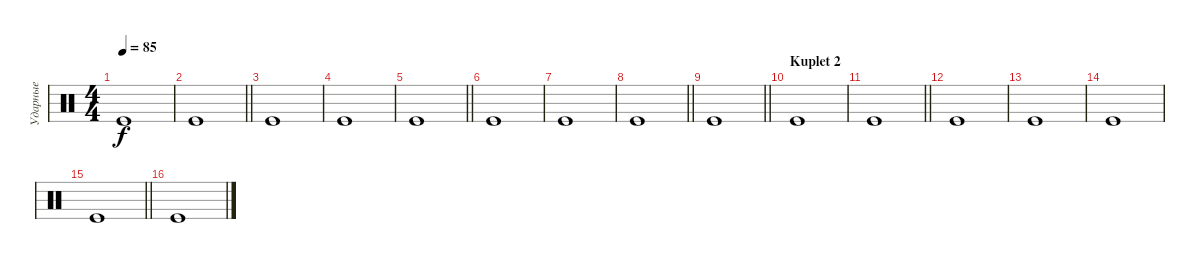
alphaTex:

\track ("Ударные" "Ударные") {instrument percussion}
\staff {score}
\articulation defaults
\ts (4 4)
\tempo 85
\clef neutral
\ks c "Kick (hit)".1{dy f}
|
\barLineRight lightlight "Kick (hit)".1
|
"Kick (hit)".1 |
"Kick (hit)".1 |
\barLineRight lightlight "Kick (hit)".1
|
"Kick (hit)".1 |
"Kick (hit)".1 |
\barLineRight lightlight "Kick (hit)".1
|
\barLineRight lightlight "Kick (hit)".1
|
\section ("" "Kuplet 2")
"Kick (hit)".1 |
\barLineRight lightlight "Kick (hit)".1
|
"Kick (hit)".1 |
"Kick (hit)".1 |
"Kick (hit)".1 |
\barLineRight lightlight "Kick (hit)".1
|
"Kick (hit)".1
